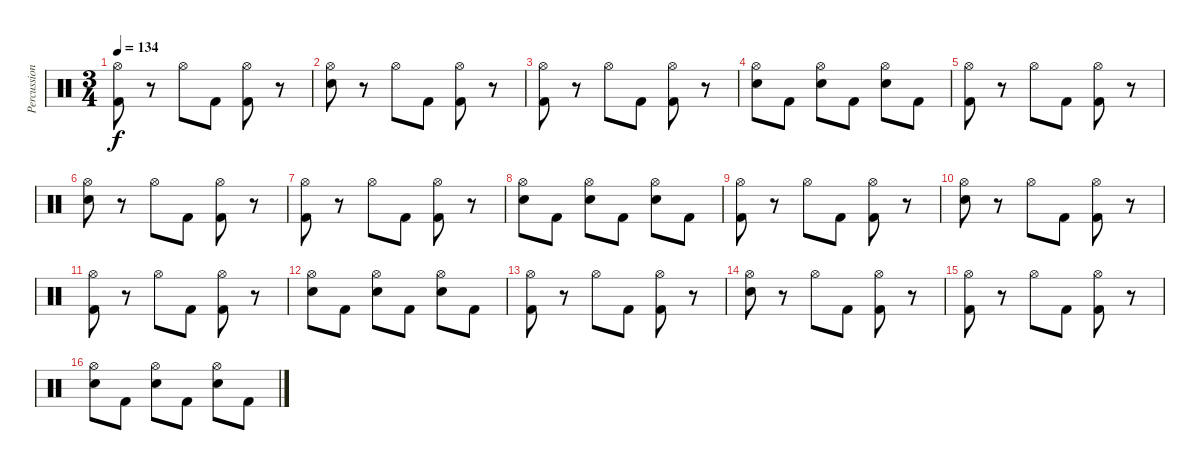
\track ("Percussion" "Percussion") {instrument percussion}
\staff {score}
\articulation defaults
\ts (3 4)
\tempo 134
\clef neutral
\ks c
("Hi-Hat (open)" "Kick (hit) 2").8{dy f} r.8 "Hi-Hat (open)".8 "Kick (hit) 2".8 ("Hi-Hat (open)" "Kick (hit) 2").8 r.8 |
("Hi-Hat (open)" "Snare (hit) 2").8 r.8 "Hi-Hat (open)".8 "Kick (hit) 2".8 ("Hi-Hat (open)" "Kick (hit) 2").8 r.8 |
("Hi-Hat (open)" "Kick (hit) 2").8 r.8 "Hi-Hat (open)".8 "Kick (hit) 2".8 ("Hi-Hat (open)" "Kick (hit) 2").8 r.8 |
("Hi-Hat (open)" "Snare (hit) 2").8 "Kick (hit) 2".8 ("Hi-Hat (open)" "Snare (hit) 2").8 "Kick (hit) 2".8 ("Hi-Hat (open)" "Snare (hit) 2").8 "Kick (hit) 2".8 |
("Hi-Hat (open)" "Kick (hit) 2").8 r.8 "Hi-Hat (open)".8 "Kick (hit) 2".8 ("Hi-Hat (open)" "Kick (hit) 2").8 r.8 |
("Hi-Hat (open)" "Snare (hit) 2").8 r.8 "Hi-Hat (open)".8 "Kick (hit) 2".8 ("Hi-Hat (open)" "Kick (hit) 2").8 r.8 |
("Hi-Hat (open)" "Kick (hit) 2").8 r.8 "Hi-Hat (open)".8 "Kick (hit) 2".8 ("Hi-Hat (open)" "Kick (hit) 2").8 r.8 |
("Hi-Hat (open)" "Snare (hit) 2").8 "Kick (hit) 2".8 ("Hi-Hat (open)" "Snare (hit) 2").8 "Kick (hit) 2".8 ("Hi-Hat (open)" "Snare (hit) 2").8 "Kick (hit) 2".8 |
("Hi-Hat (open)" "Kick (hit) 2").8 r.8 "Hi-Hat (open)".8 "Kick (hit) 2".8 ("Hi-Hat (open)" "Kick (hit) 2").8 r.8 |
("Hi-Hat (open)" "Snare (hit) 2").8 r.8 "Hi-Hat (open)".8 "Kick (hit) 2".8 ("Hi-Hat (open)" "Kick (hit) 2").8 r.8 |
("Hi-Hat (open)" "Kick (hit) 2").8 r.8 "Hi-Hat (open)".8 "Kick (hit) 2".8 ("Hi-Hat (open)" "Kick (hit) 2").8 r.8 |
("Hi-Hat (open)" "Snare (hit) 2").8 "Kick (hit) 2".8 ("Hi-Hat (open)" "Snare (hit) 2").8 "Kick (hit) 2".8 ("Hi-Hat (open)" "Snare (hit) 2").8 "Kick (hit) 2".8 |
("Hi-Hat (open)" "Kick (hit) 2").8 r.8 "Hi-Hat (open)".8 "Kick (hit) 2".8 ("Hi-Hat (open)" "Kick (hit) 2").8 r.8 |
("Hi-Hat (open)" "Snare (hit) 2").8 r.8 "Hi-Hat (open)".8 "Kick (hit) 2".8 ("Hi-Hat (open)" "Kick (hit) 2").8 r.8 |
("Hi-Hat (open)" "Kick (hit) 2").8 r.8 "Hi-Hat (open)".8 "Kick (hit) 2".8 ("Hi-Hat (open)" "Kick (hit) 2").8 r.8 |
("Hi-Hat (open)" "Snare (hit) 2").8 "Kick (hit) 2".8 ("Hi-Hat (open)" "Snare (hit) 2").8 "Kick (hit) 2".8 ("Hi-Hat (open)" "Snare (hit) 2").8 "Kick (hit) 2".8
